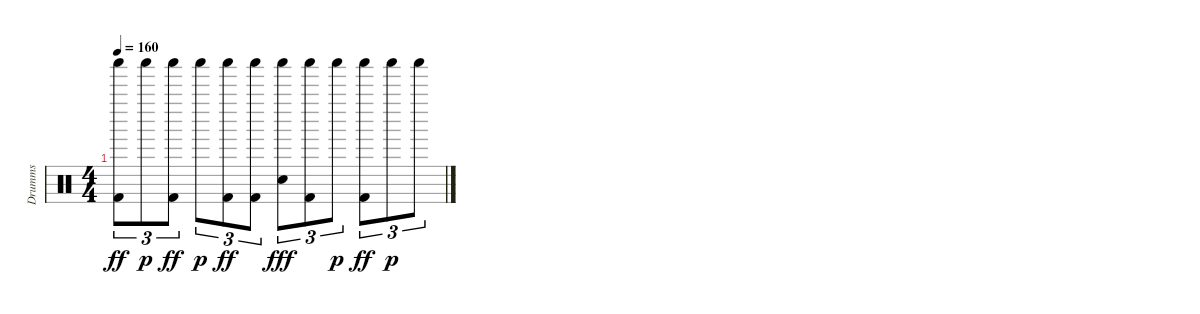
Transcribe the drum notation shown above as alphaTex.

\track ("Drumms" "Drumms") {instrument percussion}
\staff {score}
\articulation defaults
\ts (4 4)
\tempo 160
\clef neutral
\ks c
("Shaker (hit)" "Kick (hit) 2").8{tu (3 2) dy ff} "Shaker (hit)".8{tu (3 2) dy p} ("Shaker (hit)" "Kick (hit) 2").8{tu (3 2) dy ff} "Shaker (hit)".8{tu (3 2) dy p} ("Shaker (hit)" "Kick (hit) 2").8{tu (3 2) dy ff} ("Shaker (hit)" "Kick (hit) 2").8{tu (3 2)} ("Shaker (hit)" "Snare (hit) 2").8{tu (3 2) dy fff} ("Shaker (hit)" "Kick (hit) 2").8{tu (3 2)} "Shaker (hit)".8{tu (3 2) dy p} ("Shaker (hit)" "Kick (hit) 2").8{tu (3 2) dy ff} "Shaker (hit)".8{tu (3 2) dy p} "Shaker (hit)".8{tu (3 2)}
